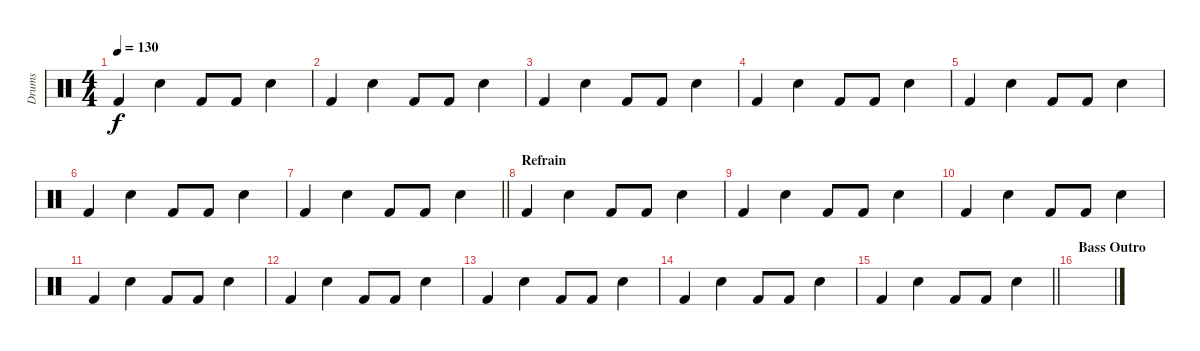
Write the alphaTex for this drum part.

\track ("Drums" "Drums") {instrument percussion}
\staff {score}
\articulation defaults
\ts (4 4)
\tempo 130
\clef neutral
\ks c "Kick (hit) 2".4{dy f} "Snare (hit) 2".4 "Kick (hit) 2".8 "Kick (hit) 2".8 "Snare (hit) 2".4
|
"Kick (hit) 2".4 "Snare (hit) 2".4 "Kick (hit) 2".8 "Kick (hit) 2".8 "Snare (hit) 2".4 |
"Kick (hit) 2".4 "Snare (hit) 2".4 "Kick (hit) 2".8 "Kick (hit) 2".8 "Snare (hit) 2".4 |
"Kick (hit) 2".4 "Snare (hit) 2".4 "Kick (hit) 2".8 "Kick (hit) 2".8 "Snare (hit) 2".4 |
"Kick (hit) 2".4 "Snare (hit) 2".4 "Kick (hit) 2".8 "Kick (hit) 2".8 "Snare (hit) 2".4 |
"Kick (hit) 2".4 "Snare (hit) 2".4 "Kick (hit) 2".8 "Kick (hit) 2".8 "Snare (hit) 2".4 |
\barLineRight lightlight "Kick (hit) 2".4 "Snare (hit) 2".4 "Kick (hit) 2".8 "Kick (hit) 2".8 "Snare (hit) 2".4
|
\section ("" "Refrain")
"Kick (hit) 2".4 "Snare (hit) 2".4 "Kick (hit) 2".8 "Kick (hit) 2".8 "Snare (hit) 2".4 |
"Kick (hit) 2".4 "Snare (hit) 2".4 "Kick (hit) 2".8 "Kick (hit) 2".8 "Snare (hit) 2".4 |
"Kick (hit) 2".4 "Snare (hit) 2".4 "Kick (hit) 2".8 "Kick (hit) 2".8 "Snare (hit) 2".4 |
"Kick (hit) 2".4 "Snare (hit) 2".4 "Kick (hit) 2".8 "Kick (hit) 2".8 "Snare (hit) 2".4 |
"Kick (hit) 2".4 "Snare (hit) 2".4 "Kick (hit) 2".8 "Kick (hit) 2".8 "Snare (hit) 2".4 |
"Kick (hit) 2".4 "Snare (hit) 2".4 "Kick (hit) 2".8 "Kick (hit) 2".8 "Snare (hit) 2".4 |
"Kick (hit) 2".4 "Snare (hit) 2".4 "Kick (hit) 2".8 "Kick (hit) 2".8 "Snare (hit) 2".4 |
\barLineRight lightlight "Kick (hit) 2".4 "Snare (hit) 2".4 "Kick (hit) 2".8 "Kick (hit) 2".8 "Snare (hit) 2".4
|
\section ("" "Bass Outro")
